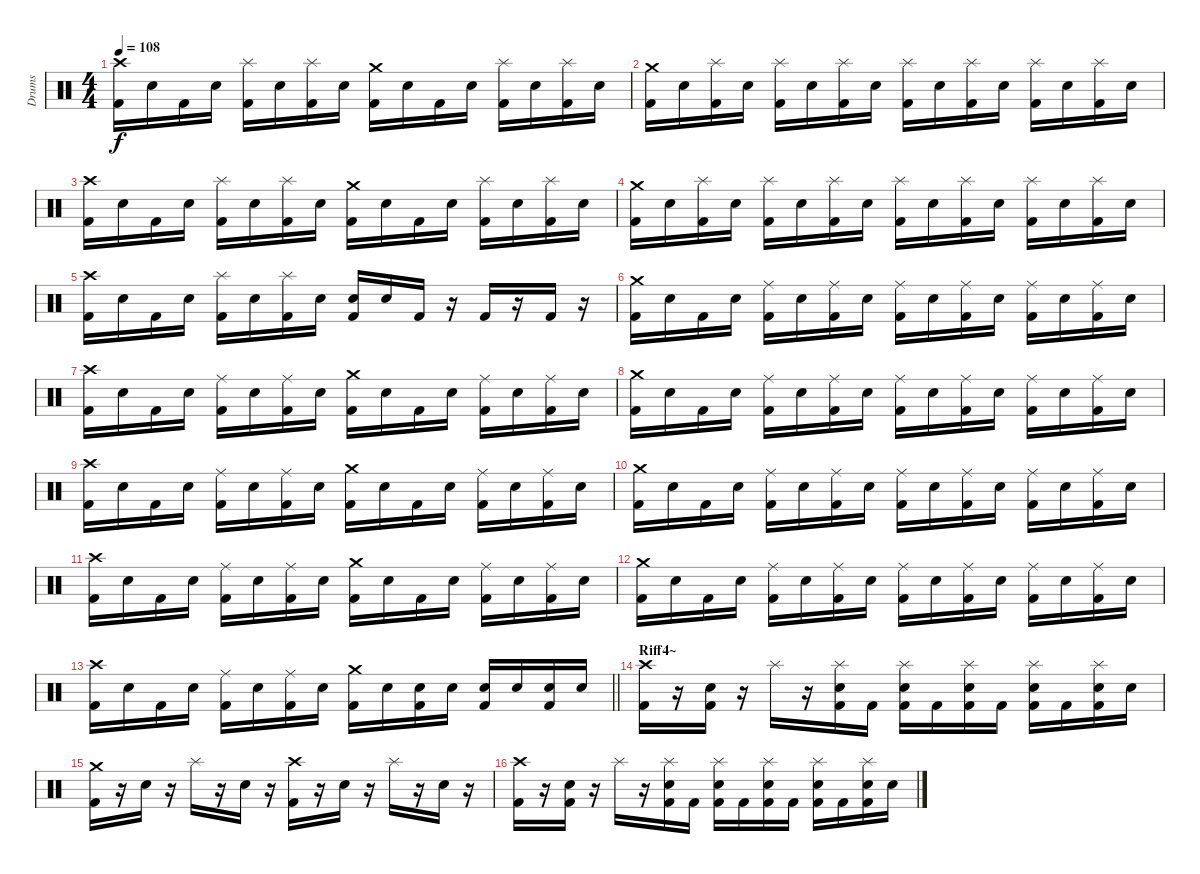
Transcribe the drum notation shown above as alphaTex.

\track ("Drums" "Drums") {instrument percussion}
\staff {score}
\articulation defaults
\ts (4 4)
\tempo 108
\clef neutral
\ks c
("Crash high (hit)" "Kick (hit) 2").16{dy f} "Snare (hit) 2".16 "Kick (hit) 2".16 "Snare (hit) 2".16 ("Splash (hit)" "Kick (hit) 2").16 "Snare (hit) 2".16 ("Splash (hit)" "Kick (hit) 2").16 "Snare (hit) 2".16 ("Crash medium (hit)" "Kick (hit) 2").16 "Snare (hit) 2".16 "Kick (hit) 2".16 "Snare (hit) 2".16 ("Splash (hit)" "Kick (hit) 2").16 "Snare (hit) 2".16 ("Splash (hit)" "Kick (hit) 2").16 "Snare (hit) 2".16 |
("Crash medium (hit)" "Kick (hit) 2").16 "Snare (hit) 2".16 ("Splash (hit)" "Kick (hit) 2").16 "Snare (hit) 2".16 ("Splash (hit)" "Kick (hit) 2").16 "Snare (hit) 2".16 ("Splash (hit)" "Kick (hit) 2").16 "Snare (hit) 2".16 ("Splash (hit)" "Kick (hit) 2").16 "Snare (hit) 2".16 ("Splash (hit)" "Kick (hit) 2").16 "Snare (hit) 2".16 ("Splash (hit)" "Kick (hit) 2").16 "Snare (hit) 2".16 ("Splash (hit)" "Kick (hit) 2").16 "Snare (hit) 2".16 |
("Crash high (hit)" "Kick (hit) 2").16 "Snare (hit) 2".16 "Kick (hit) 2".16 "Snare (hit) 2".16 ("Splash (hit)" "Kick (hit) 2").16 "Snare (hit) 2".16 ("Splash (hit)" "Kick (hit) 2").16 "Snare (hit) 2".16 ("Crash medium (hit)" "Kick (hit) 2").16 "Snare (hit) 2".16 "Kick (hit) 2".16 "Snare (hit) 2".16 ("Splash (hit)" "Kick (hit) 2").16 "Snare (hit) 2".16 ("Splash (hit)" "Kick (hit) 2").16 "Snare (hit) 2".16 |
("Crash medium (hit)" "Kick (hit) 2").16 "Snare (hit) 2".16 ("Splash (hit)" "Kick (hit) 2").16 "Snare (hit) 2".16 ("Splash (hit)" "Kick (hit) 2").16 "Snare (hit) 2".16 ("Splash (hit)" "Kick (hit) 2").16 "Snare (hit) 2".16 ("Splash (hit)" "Kick (hit) 2").16 "Snare (hit) 2".16 ("Splash (hit)" "Kick (hit) 2").16 "Snare (hit) 2".16 ("Splash (hit)" "Kick (hit) 2").16 "Snare (hit) 2".16 ("Splash (hit)" "Kick (hit) 2").16 "Snare (hit) 2".16 |
("Crash high (hit)" "Kick (hit) 2").16 "Snare (hit) 2".16 "Kick (hit) 2".16 "Snare (hit) 2".16 ("Splash (hit)" "Kick (hit) 2").16 "Snare (hit) 2".16 ("Splash (hit)" "Kick (hit) 2").16 "Snare (hit) 2".16 ("Snare (hit) 2" "Kick (hit) 2").16 "Snare (hit) 2".16 "Kick (hit) 2".16 r.16 "Kick (hit) 2".16 r.16 "Kick (hit) 2".16 r.16 |
("Crash medium (hit)" "Kick (hit) 2").16 "Snare (hit) 2".16 "Kick (hit) 2".16 "Snare (hit) 2".16 ("Ride (middle)" "Kick (hit) 2").16 "Snare (hit) 2".16 ("Ride (middle)" "Kick (hit) 2").16 "Snare (hit) 2".16 ("Ride (middle)" "Kick (hit) 2").16 "Snare (hit) 2".16 ("Ride (middle)" "Kick (hit) 2").16 "Snare (hit) 2".16 ("Ride (middle)" "Kick (hit) 2").16 "Snare (hit) 2".16 ("Ride (middle)" "Kick (hit) 2").16 "Snare (hit) 2".16 |
("Crash high (hit)" "Kick (hit) 2").16 "Snare (hit) 2".16 "Kick (hit) 2".16 "Snare (hit) 2".16 ("Ride (middle)" "Kick (hit) 2").16 "Snare (hit) 2".16 ("Ride (middle)" "Kick (hit) 2").16 "Snare (hit) 2".16 ("Crash medium (hit)" "Kick (hit) 2").16 "Snare (hit) 2".16 "Kick (hit) 2".16 "Snare (hit) 2".16 ("Ride (middle)" "Kick (hit) 2").16 "Snare (hit) 2".16 ("Ride (middle)" "Kick (hit) 2").16 "Snare (hit) 2".16 |
("Crash medium (hit)" "Kick (hit) 2").16 "Snare (hit) 2".16 "Kick (hit) 2".16 "Snare (hit) 2".16 ("Ride (middle)" "Kick (hit) 2").16 "Snare (hit) 2".16 ("Ride (middle)" "Kick (hit) 2").16 "Snare (hit) 2".16 ("Ride (middle)" "Kick (hit) 2").16 "Snare (hit) 2".16 ("Ride (middle)" "Kick (hit) 2").16 "Snare (hit) 2".16 ("Ride (middle)" "Kick (hit) 2").16 "Snare (hit) 2".16 ("Ride (middle)" "Kick (hit) 2").16 "Snare (hit) 2".16 |
("Crash high (hit)" "Kick (hit) 2").16 "Snare (hit) 2".16 "Kick (hit) 2".16 "Snare (hit) 2".16 ("Ride (middle)" "Kick (hit) 2").16 "Snare (hit) 2".16 ("Ride (middle)" "Kick (hit) 2").16 "Snare (hit) 2".16 ("Crash medium (hit)" "Kick (hit) 2").16 "Snare (hit) 2".16 "Kick (hit) 2".16 "Snare (hit) 2".16 ("Ride (middle)" "Kick (hit) 2").16 "Snare (hit) 2".16 ("Ride (middle)" "Kick (hit) 2").16 "Snare (hit) 2".16 |
("Crash medium (hit)" "Kick (hit) 2").16 "Snare (hit) 2".16 "Kick (hit) 2".16 "Snare (hit) 2".16 ("Ride (middle)" "Kick (hit) 2").16 "Snare (hit) 2".16 ("Ride (middle)" "Kick (hit) 2").16 "Snare (hit) 2".16 ("Ride (middle)" "Kick (hit) 2").16 "Snare (hit) 2".16 ("Ride (middle)" "Kick (hit) 2").16 "Snare (hit) 2".16 ("Ride (middle)" "Kick (hit) 2").16 "Snare (hit) 2".16 ("Ride (middle)" "Kick (hit) 2").16 "Snare (hit) 2".16 |
("Crash high (hit)" "Kick (hit) 2").16 "Snare (hit) 2".16 "Kick (hit) 2".16 "Snare (hit) 2".16 ("Ride (middle)" "Kick (hit) 2").16 "Snare (hit) 2".16 ("Ride (middle)" "Kick (hit) 2").16 "Snare (hit) 2".16 ("Crash medium (hit)" "Kick (hit) 2").16 "Snare (hit) 2".16 "Kick (hit) 2".16 "Snare (hit) 2".16 ("Ride (middle)" "Kick (hit) 2").16 "Snare (hit) 2".16 ("Ride (middle)" "Kick (hit) 2").16 "Snare (hit) 2".16 |
("Crash medium (hit)" "Kick (hit) 2").16 "Snare (hit) 2".16 "Kick (hit) 2".16 "Snare (hit) 2".16 ("Ride (middle)" "Kick (hit) 2").16 "Snare (hit) 2".16 ("Ride (middle)" "Kick (hit) 2").16 "Snare (hit) 2".16 ("Ride (middle)" "Kick (hit) 2").16 "Snare (hit) 2".16 ("Ride (middle)" "Kick (hit) 2").16 "Snare (hit) 2".16 ("Ride (middle)" "Kick (hit) 2").16 "Snare (hit) 2".16 ("Ride (middle)" "Kick (hit) 2").16 "Snare (hit) 2".16 |
\barLineRight lightlight
("Crash high (hit)" "Kick (hit) 2").16 "Snare (hit) 2".16 "Kick (hit) 2".16 "Snare (hit) 2".16 ("Ride (middle)" "Kick (hit) 2").16 "Snare (hit) 2".16 ("Ride (middle)" "Kick (hit) 2").16 "Snare (hit) 2".16 ("Crash medium (hit)" "Kick (hit) 2").16 "Snare (hit) 2".16 ("Snare (hit) 2" "Kick (hit) 2").16 "Snare (hit) 2".16 ("Snare (hit) 2" "Kick (hit) 2").16 "Snare (hit) 2".16 ("Snare (hit) 2" "Kick (hit) 2").16 "Snare (hit) 2".16 |
\section ("" "Riff4~")
("Crash high (hit)" "Kick (hit) 2").16 r.16 ("Snare (hit) 2" "Kick (hit) 2").16 r.16 "Splash (hit)".16 r.16 ("Splash (hit)" "Snare (hit) 2" "Kick (hit) 2").16 "Kick (hit) 2".16 ("Splash (hit)" "Snare (hit) 2" "Kick (hit) 2").16 "Kick (hit) 2".16 ("Splash (hit)" "Snare (hit) 2" "Kick (hit) 2").16 "Kick (hit) 2".16 ("Splash (hit)" "Snare (hit) 2" "Kick (hit) 2").16 "Kick (hit) 2".16 ("Splash (hit)" "Snare (hit) 2" "Kick (hit) 2").16 "Snare (hit) 2".16 |
("Crash medium (hit)" "Kick (hit) 2").16 r.16 "Snare (hit) 2".16 r.16 "Splash (hit)".16 r.16 "Snare (hit) 2".16 r.16 ("Crash high (hit)" "Kick (hit) 2").16 r.16 "Snare (hit) 2".16 r.16 "Splash (hit)".16 r.16 "Snare (hit) 2".16 r.16 |
("Crash high (hit)" "Kick (hit) 2").16 r.16 ("Snare (hit) 2" "Kick (hit) 2").16 r.16 "Splash (hit)".16 r.16 ("Splash (hit)" "Snare (hit) 2" "Kick (hit) 2").16 "Kick (hit) 2".16 ("Splash (hit)" "Snare (hit) 2" "Kick (hit) 2").16 "Kick (hit) 2".16 ("Splash (hit)" "Snare (hit) 2" "Kick (hit) 2").16 "Kick (hit) 2".16 ("Splash (hit)" "Snare (hit) 2" "Kick (hit) 2").16 "Kick (hit) 2".16 ("Splash (hit)" "Snare (hit) 2" "Kick (hit) 2").16 "Snare (hit) 2".16
